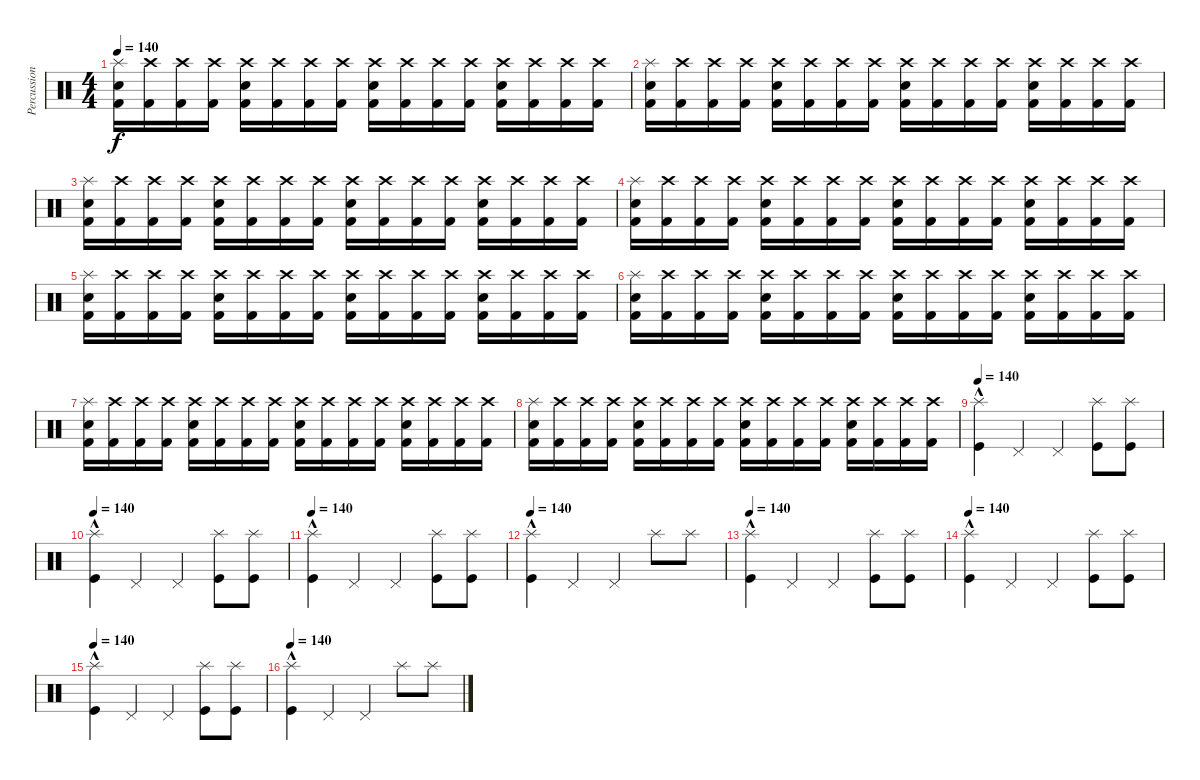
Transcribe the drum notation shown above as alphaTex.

\track ("Percussion" "Percussion") {instrument percussion}
\staff {score}
\articulation defaults
\ts (4 4)
\tempo 140
\clef neutral
\ks c
("Snare (hit) 2" "Splash (hit)" "Kick (hit) 2").16{dy f} ("Crash high (hit)" "Kick (hit) 2").16 ("Crash high (hit)" "Kick (hit) 2").16 ("Crash high (hit)" "Kick (hit) 2").16 ("Crash high (hit)" "Snare (hit) 2" "Kick (hit) 2").16 ("Crash high (hit)" "Kick (hit) 2").16 ("Crash high (hit)" "Kick (hit) 2").16 ("Crash high (hit)" "Kick (hit) 2").16 ("Crash high (hit)" "Snare (hit) 2" "Kick (hit) 2").16 ("Crash high (hit)" "Kick (hit) 2").16 ("Crash high (hit)" "Kick (hit) 2").16 ("Crash high (hit)" "Kick (hit) 2").16 ("Crash high (hit)" "Snare (hit) 2" "Kick (hit) 2").16 ("Crash high (hit)" "Kick (hit) 2").16 ("Crash high (hit)" "Kick (hit) 2").16 ("Crash high (hit)" "Kick (hit) 2").16 |
("Snare (hit) 2" "Splash (hit)" "Kick (hit) 2").16 ("Crash high (hit)" "Kick (hit) 2").16 ("Crash high (hit)" "Kick (hit) 2").16 ("Crash high (hit)" "Kick (hit) 2").16 ("Crash high (hit)" "Snare (hit) 2" "Kick (hit) 2").16 ("Crash high (hit)" "Kick (hit) 2").16 ("Crash high (hit)" "Kick (hit) 2").16 ("Crash high (hit)" "Kick (hit) 2").16 ("Crash high (hit)" "Snare (hit) 2" "Kick (hit) 2").16 ("Crash high (hit)" "Kick (hit) 2").16 ("Crash high (hit)" "Kick (hit) 2").16 ("Crash high (hit)" "Kick (hit) 2").16 ("Crash high (hit)" "Snare (hit) 2" "Kick (hit) 2").16 ("Crash high (hit)" "Kick (hit) 2").16 ("Crash high (hit)" "Kick (hit) 2").16 ("Crash high (hit)" "Kick (hit) 2").16 |
("Snare (hit) 2" "Splash (hit)" "Kick (hit) 2").16 ("Crash high (hit)" "Kick (hit) 2").16 ("Crash high (hit)" "Kick (hit) 2").16 ("Crash high (hit)" "Kick (hit) 2").16 ("Crash high (hit)" "Snare (hit) 2" "Kick (hit) 2").16 ("Crash high (hit)" "Kick (hit) 2").16 ("Crash high (hit)" "Kick (hit) 2").16 ("Crash high (hit)" "Kick (hit) 2").16 ("Crash high (hit)" "Snare (hit) 2" "Kick (hit) 2").16 ("Crash high (hit)" "Kick (hit) 2").16 ("Crash high (hit)" "Kick (hit) 2").16 ("Crash high (hit)" "Kick (hit) 2").16 ("Crash high (hit)" "Snare (hit) 2" "Kick (hit) 2").16 ("Crash high (hit)" "Kick (hit) 2").16 ("Crash high (hit)" "Kick (hit) 2").16 ("Crash high (hit)" "Kick (hit) 2").16 |
("Snare (hit) 2" "Splash (hit)" "Kick (hit) 2").16 ("Crash high (hit)" "Kick (hit) 2").16 ("Crash high (hit)" "Kick (hit) 2").16 ("Crash high (hit)" "Kick (hit) 2").16 ("Crash high (hit)" "Snare (hit) 2" "Kick (hit) 2").16 ("Crash high (hit)" "Kick (hit) 2").16 ("Crash high (hit)" "Kick (hit) 2").16 ("Crash high (hit)" "Kick (hit) 2").16 ("Crash high (hit)" "Snare (hit) 2" "Kick (hit) 2").16 ("Crash high (hit)" "Kick (hit) 2").16 ("Crash high (hit)" "Kick (hit) 2").16 ("Crash high (hit)" "Kick (hit) 2").16 ("Crash high (hit)" "Snare (hit) 2" "Kick (hit) 2").16 ("Crash high (hit)" "Kick (hit) 2").16 ("Crash high (hit)" "Kick (hit) 2").16 ("Crash high (hit)" "Kick (hit) 2").16 |
("Snare (hit) 2" "Splash (hit)" "Kick (hit) 2").16 ("Crash high (hit)" "Kick (hit) 2").16 ("Crash high (hit)" "Kick (hit) 2").16 ("Crash high (hit)" "Kick (hit) 2").16 ("Crash high (hit)" "Snare (hit) 2" "Kick (hit) 2").16 ("Crash high (hit)" "Kick (hit) 2").16 ("Crash high (hit)" "Kick (hit) 2").16 ("Crash high (hit)" "Kick (hit) 2").16 ("Crash high (hit)" "Snare (hit) 2" "Kick (hit) 2").16 ("Crash high (hit)" "Kick (hit) 2").16 ("Crash high (hit)" "Kick (hit) 2").16 ("Crash high (hit)" "Kick (hit) 2").16 ("Crash high (hit)" "Snare (hit) 2" "Kick (hit) 2").16 ("Crash high (hit)" "Kick (hit) 2").16 ("Crash high (hit)" "Kick (hit) 2").16 ("Crash high (hit)" "Kick (hit) 2").16 |
("Snare (hit) 2" "Splash (hit)" "Kick (hit) 2").16 ("Crash high (hit)" "Kick (hit) 2").16 ("Crash high (hit)" "Kick (hit) 2").16 ("Crash high (hit)" "Kick (hit) 2").16 ("Crash high (hit)" "Snare (hit) 2" "Kick (hit) 2").16 ("Crash high (hit)" "Kick (hit) 2").16 ("Crash high (hit)" "Kick (hit) 2").16 ("Crash high (hit)" "Kick (hit) 2").16 ("Crash high (hit)" "Snare (hit) 2" "Kick (hit) 2").16 ("Crash high (hit)" "Kick (hit) 2").16 ("Crash high (hit)" "Kick (hit) 2").16 ("Crash high (hit)" "Kick (hit) 2").16 ("Crash high (hit)" "Snare (hit) 2" "Kick (hit) 2").16 ("Crash high (hit)" "Kick (hit) 2").16 ("Crash high (hit)" "Kick (hit) 2").16 ("Crash high (hit)" "Kick (hit) 2").16 |
("Snare (hit) 2" "Splash (hit)" "Kick (hit) 2").16 ("Crash high (hit)" "Kick (hit) 2").16 ("Crash high (hit)" "Kick (hit) 2").16 ("Crash high (hit)" "Kick (hit) 2").16 ("Crash high (hit)" "Snare (hit) 2" "Kick (hit) 2").16 ("Crash high (hit)" "Kick (hit) 2").16 ("Crash high (hit)" "Kick (hit) 2").16 ("Crash high (hit)" "Kick (hit) 2").16 ("Crash high (hit)" "Snare (hit) 2" "Kick (hit) 2").16 ("Crash high (hit)" "Kick (hit) 2").16 ("Crash high (hit)" "Kick (hit) 2").16 ("Crash high (hit)" "Kick (hit) 2").16 ("Crash high (hit)" "Snare (hit) 2" "Kick (hit) 2").16 ("Crash high (hit)" "Kick (hit) 2").16 ("Crash high (hit)" "Kick (hit) 2").16 ("Crash high (hit)" "Kick (hit) 2").16 |
("Snare (hit) 2" "Splash (hit)" "Kick (hit) 2").16 ("Crash high (hit)" "Kick (hit) 2").16 ("Crash high (hit)" "Kick (hit) 2").16 ("Crash high (hit)" "Kick (hit) 2").16 ("Crash high (hit)" "Snare (hit) 2" "Kick (hit) 2").16 ("Crash high (hit)" "Kick (hit) 2").16 ("Crash high (hit)" "Kick (hit) 2").16 ("Crash high (hit)" "Kick (hit) 2").16 ("Crash high (hit)" "Snare (hit) 2" "Kick (hit) 2").16 ("Crash high (hit)" "Kick (hit) 2").16 ("Crash high (hit)" "Kick (hit) 2").16 ("Crash high (hit)" "Kick (hit) 2").16 ("Crash high (hit)" "Snare (hit) 2" "Kick (hit) 2").16 ("Crash high (hit)" "Kick (hit) 2").16 ("Crash high (hit)" "Kick (hit) 2").16 ("Crash high (hit)" "Kick (hit) 2").16 |
\tempo 140
("Splash (hit)" "Kick (hit)"{hac}).4 "Pedal Hi-Hat (hit)".4 "Pedal Hi-Hat (hit)".4 ("Splash (hit)" "Kick (hit)").8 ("Splash (hit)" "Kick (hit)").8 |
\tempo 140
("Splash (hit)" "Kick (hit)"{hac}).4 "Pedal Hi-Hat (hit)".4 "Pedal Hi-Hat (hit)".4 ("Splash (hit)" "Kick (hit)").8 ("Splash (hit)" "Kick (hit)").8 |
\tempo 140
("Splash (hit)" "Kick (hit)"{hac}).4 "Pedal Hi-Hat (hit)".4 "Pedal Hi-Hat (hit)".4 ("Splash (hit)" "Kick (hit)").8 ("Splash (hit)" "Kick (hit)").8 |
\tempo 140
("Splash (hit)" "Kick (hit)"{hac}).4 "Pedal Hi-Hat (hit)".4 "Pedal Hi-Hat (hit)".4 "Splash (hit)".8 "Splash (hit)".8 |
\tempo 140
("Splash (hit)" "Kick (hit)"{hac}).4 "Pedal Hi-Hat (hit)".4 "Pedal Hi-Hat (hit)".4 ("Splash (hit)" "Kick (hit)").8 ("Splash (hit)" "Kick (hit)").8 |
\tempo 140
("Splash (hit)" "Kick (hit)"{hac}).4 "Pedal Hi-Hat (hit)".4 "Pedal Hi-Hat (hit)".4 ("Splash (hit)" "Kick (hit)").8 ("Splash (hit)" "Kick (hit)").8 |
\tempo 140
("Splash (hit)" "Kick (hit)"{hac}).4 "Pedal Hi-Hat (hit)".4 "Pedal Hi-Hat (hit)".4 ("Splash (hit)" "Kick (hit)").8 ("Splash (hit)" "Kick (hit)").8 |
\tempo 140
("Splash (hit)" "Kick (hit)"{hac}).4 "Pedal Hi-Hat (hit)".4 "Pedal Hi-Hat (hit)".4 "Splash (hit)".8 "Splash (hit)".8
